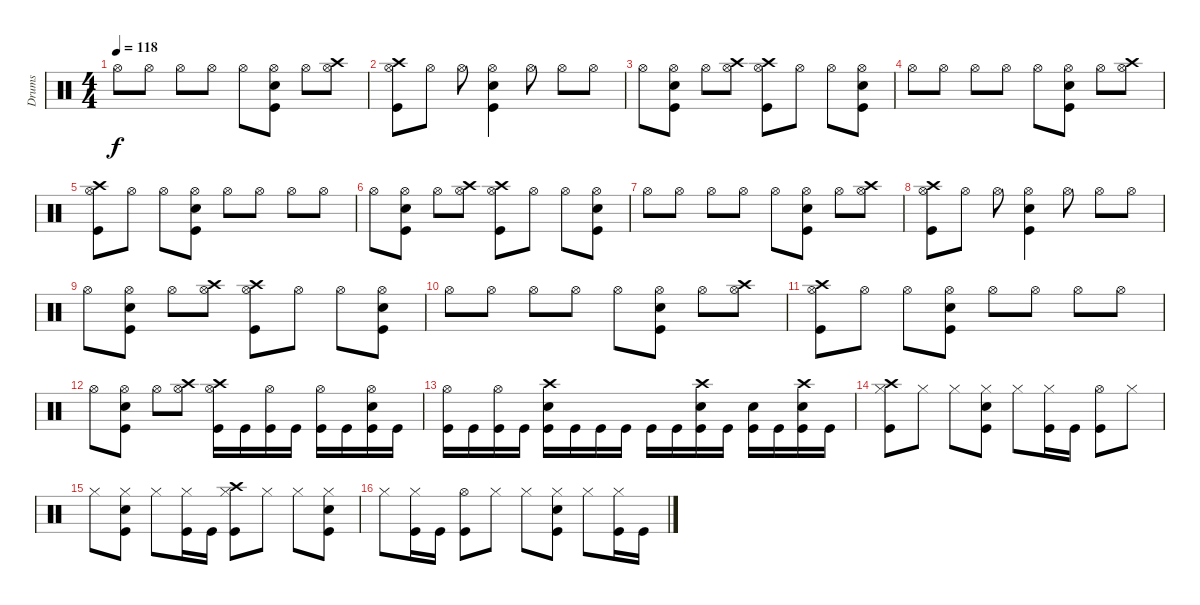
\track ("Drums" "Drums") {instrument percussion}
\staff {score}
\articulation defaults
\ts (4 4)
\tempo 118
\clef neutral
\ks c "Hi-Hat (open)".8{dy f} "Hi-Hat (open)".8 "Hi-Hat (open)".8 "Hi-Hat (open)".8 "Hi-Hat (open)".8
("Kick (hit)" "Snare (hit) 2" "Hi-Hat (open)").8 "Hi-Hat (open)".8 ("Hi-Hat (open)" "Crash high (hit)").8 |
("Kick (hit)" "Hi-Hat (open)" "Crash high (hit)").8 "Hi-Hat (open)".8 "Hi-Hat (open)".8 ("Kick (hit)" "Snare (hit) 2" "Hi-Hat (open)").4 "Hi-Hat (open)".8 "Hi-Hat (open)".8 "Hi-Hat (open)".8 |
"Hi-Hat (open)".8 ("Kick (hit)" "Snare (hit) 2" "Hi-Hat (open)").8 "Hi-Hat (open)".8 ("Hi-Hat (open)" "Crash high (hit)").8 ("Kick (hit)" "Hi-Hat (open)" "Crash high (hit)").8 "Hi-Hat (open)".8 "Hi-Hat (open)".8 ("Kick (hit)" "Snare (hit) 2" "Hi-Hat (open)").8 |
"Hi-Hat (open)".8 "Hi-Hat (open)".8 "Hi-Hat (open)".8 "Hi-Hat (open)".8 "Hi-Hat (open)".8 ("Kick (hit)" "Snare (hit) 2" "Hi-Hat (open)").8 "Hi-Hat (open)".8 ("Hi-Hat (open)" "Crash high (hit)").8 |
("Kick (hit)" "Hi-Hat (open)" "Crash high (hit)").8 "Hi-Hat (open)".8 "Hi-Hat (open)".8 ("Kick (hit)" "Snare (hit) 2" "Hi-Hat (open)").8 "Hi-Hat (open)".8 "Hi-Hat (open)".8 "Hi-Hat (open)".8 "Hi-Hat (open)".8 |
"Hi-Hat (open)".8 ("Kick (hit)" "Snare (hit) 2" "Hi-Hat (open)").8 "Hi-Hat (open)".8 ("Hi-Hat (open)" "Crash high (hit)").8 ("Kick (hit)" "Hi-Hat (open)" "Crash high (hit)").8 "Hi-Hat (open)".8 "Hi-Hat (open)".8 ("Kick (hit)" "Snare (hit) 2" "Hi-Hat (open)").8 |
"Hi-Hat (open)".8 "Hi-Hat (open)".8 "Hi-Hat (open)".8 "Hi-Hat (open)".8 "Hi-Hat (open)".8 ("Kick (hit)" "Snare (hit) 2" "Hi-Hat (open)").8 "Hi-Hat (open)".8 ("Hi-Hat (open)" "Crash high (hit)").8 |
("Kick (hit)" "Hi-Hat (open)" "Crash high (hit)").8 "Hi-Hat (open)".8 "Hi-Hat (open)".8 ("Kick (hit)" "Snare (hit) 2" "Hi-Hat (open)").4 "Hi-Hat (open)".8 "Hi-Hat (open)".8 "Hi-Hat (open)".8 |
"Hi-Hat (open)".8 ("Kick (hit)" "Snare (hit) 2" "Hi-Hat (open)").8 "Hi-Hat (open)".8 ("Hi-Hat (open)" "Crash high (hit)").8 ("Kick (hit)" "Hi-Hat (open)" "Crash high (hit)").8 "Hi-Hat (open)".8 "Hi-Hat (open)".8 ("Kick (hit)" "Snare (hit) 2" "Hi-Hat (open)").8 |
"Hi-Hat (open)".8 "Hi-Hat (open)".8 "Hi-Hat (open)".8 "Hi-Hat (open)".8 "Hi-Hat (open)".8 ("Kick (hit)" "Snare (hit) 2" "Hi-Hat (open)").8 "Hi-Hat (open)".8 ("Hi-Hat (open)" "Crash high (hit)").8 |
("Kick (hit)" "Hi-Hat (open)" "Crash high (hit)").8 "Hi-Hat (open)".8 "Hi-Hat (open)".8 ("Kick (hit)" "Snare (hit) 2" "Hi-Hat (open)").8 "Hi-Hat (open)".8 "Hi-Hat (open)".8 "Hi-Hat (open)".8 "Hi-Hat (open)".8 |
"Hi-Hat (open)".8 ("Kick (hit)" "Snare (hit) 2" "Hi-Hat (open)").8 "Hi-Hat (open)".8 ("Hi-Hat (open)" "Crash high (hit)").8 ("Kick (hit)" "Hi-Hat (open)" "Crash high (hit)").16 "Kick (hit)".16 ("Kick (hit)" "Hi-Hat (open)").16 "Kick (hit)".16 ("Kick (hit)" "Hi-Hat (open)").16 "Kick (hit)".16 ("Kick (hit)" "Snare (hit) 2" "Hi-Hat (open)").16 "Kick (hit)".16 |
("Kick (hit)" "Hi-Hat (open)").16 "Kick (hit)".16 ("Kick (hit)" "Hi-Hat (open)").16 "Kick (hit)".16 ("Kick (hit)" "Snare (hit) 2" "Crash high (hit)").16 "Kick (hit)".16 "Kick (hit)".16 "Kick (hit)".16 "Kick (hit)".16 "Kick (hit)".16 ("Kick (hit)" "Snare (hit) 2" "Crash high (hit)").16 "Kick (hit)".16 ("Kick (hit)" "Snare (hit) 2").16 "Kick (hit)".16 ("Kick (hit)" "Snare (hit) 2" "Crash high (hit)").16 "Kick (hit)".16 |
("Kick (hit)" "Hi-Hat (closed)" "Crash high (hit)").8 "Hi-Hat (closed)".8 "Hi-Hat (closed)".8 ("Kick (hit)" "Snare (hit) 2" "Hi-Hat (closed)").8 "Hi-Hat (closed)".8 ("Kick (hit)" "Hi-Hat (closed)").16 "Kick (hit)".16 ("Kick (hit)" "Hi-Hat (open)").8 "Hi-Hat (closed)".8 |
"Hi-Hat (closed)".8 ("Kick (hit)" "Snare (hit) 2" "Hi-Hat (closed)").8 "Hi-Hat (closed)".8 ("Kick (hit)" "Hi-Hat (closed)").16 "Kick (hit)".16 ("Kick (hit)" "Hi-Hat (closed)" "Crash high (hit)").8 "Hi-Hat (closed)".8 "Hi-Hat (closed)".8 ("Kick (hit)" "Snare (hit) 2" "Hi-Hat (closed)").8 |
"Hi-Hat (closed)".8 ("Kick (hit)" "Hi-Hat (closed)").16 "Kick (hit)".16 ("Kick (hit)" "Hi-Hat (open)").8 "Hi-Hat (closed)".8 "Hi-Hat (closed)".8 ("Kick (hit)" "Snare (hit) 2" "Hi-Hat (closed)").8 "Hi-Hat (closed)".8 ("Kick (hit)" "Hi-Hat (closed)").16 "Kick (hit)".16
